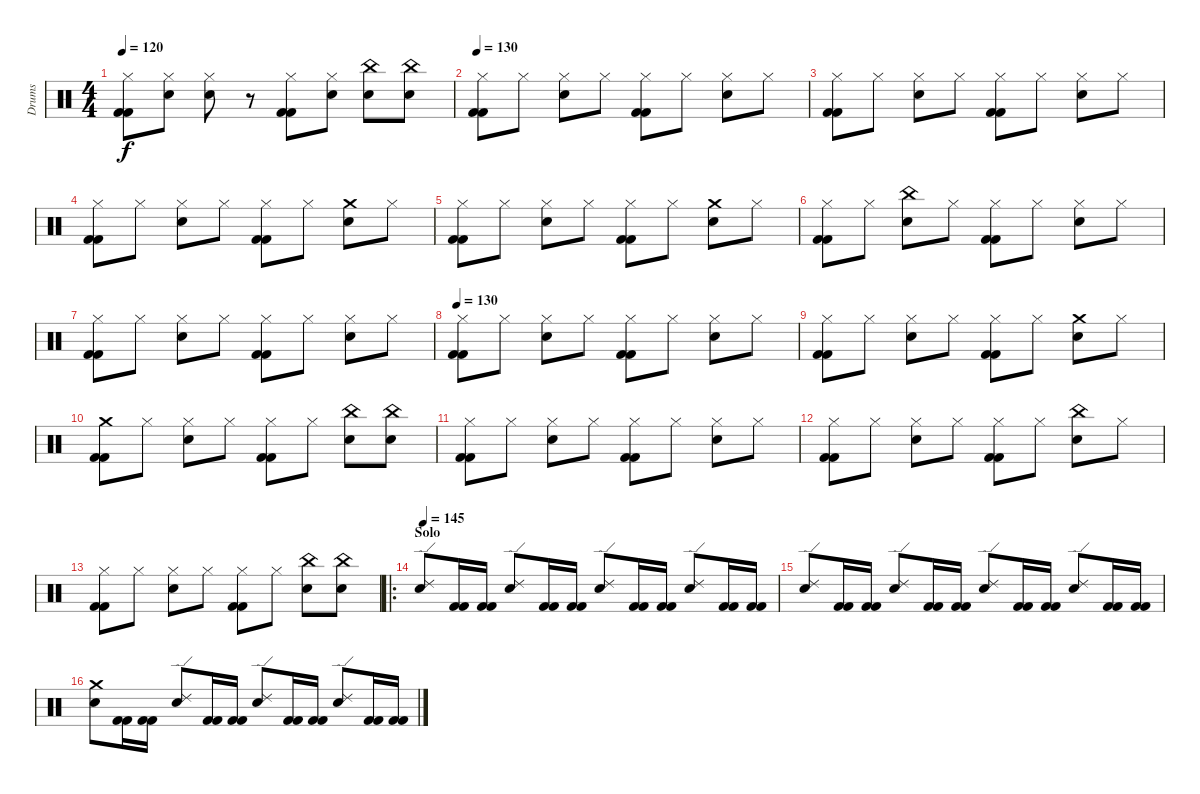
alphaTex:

\track ("Drums" "Drums") {instrument percussion}
\staff {score}
\articulation defaults
\ts (4 4)
\tempo 120
\clef neutral
\ks c
("Hi-Hat (closed)" "Kick (hit) 2" "Kick (hit) 2").8{dy f} ("Electric Snare (hit)" "Hi-Hat (closed)").8 ("Electric Snare (hit)" "Hi-Hat (closed)").8 r.8 ("Hi-Hat (closed)" "Kick (hit) 2" "Kick (hit) 2").8 ("Electric Snare (hit)" "Hi-Hat (closed)").8 ("Electric Snare (hit)" "China (hit)").8 ("China (hit)" "Electric Snare (hit)").8 |
\tempo 130
("Hi-Hat (closed)" "Kick (hit) 2" "Kick (hit) 2").8 "Hi-Hat (closed)".8 ("Electric Snare (hit)" "Hi-Hat (closed)").8 "Hi-Hat (closed)".8 ("Hi-Hat (closed)" "Kick (hit) 2" "Kick (hit) 2").8 "Hi-Hat (closed)".8 ("Electric Snare (hit)" "Hi-Hat (closed)").8 "Hi-Hat (closed)".8 |
("Hi-Hat (closed)" "Kick (hit) 2" "Kick (hit) 2").8 "Hi-Hat (closed)".8 ("Electric Snare (hit)" "Hi-Hat (closed)").8 "Hi-Hat (closed)".8 ("Hi-Hat (closed)" "Kick (hit) 2" "Kick (hit) 2").8 "Hi-Hat (closed)".8 ("Electric Snare (hit)" "Hi-Hat (closed)").8 "Hi-Hat (closed)".8 |
("Hi-Hat (closed)" "Kick (hit) 2" "Kick (hit) 2").8 "Hi-Hat (closed)".8 ("Electric Snare (hit)" "Hi-Hat (closed)").8 "Hi-Hat (closed)".8 ("Hi-Hat (closed)" "Kick (hit) 2" "Kick (hit) 2").8 "Hi-Hat (closed)".8 ("Electric Snare (hit)" "Crash medium (hit)").8 "Hi-Hat (closed)".8 |
("Hi-Hat (closed)" "Kick (hit) 2" "Kick (hit) 2").8 "Hi-Hat (closed)".8 ("Electric Snare (hit)" "Hi-Hat (closed)").8 "Hi-Hat (closed)".8 ("Hi-Hat (closed)" "Kick (hit) 2" "Kick (hit) 2").8 "Hi-Hat (closed)".8 ("Electric Snare (hit)" "Crash medium (hit)").8 "Hi-Hat (closed)".8 |
("Hi-Hat (closed)" "Kick (hit) 2" "Kick (hit) 2").8 "Hi-Hat (closed)".8 ("Electric Snare (hit)" "China (hit)").8 "Hi-Hat (closed)".8 ("Hi-Hat (closed)" "Kick (hit) 2" "Kick (hit) 2").8 "Hi-Hat (closed)".8 ("Electric Snare (hit)" "Hi-Hat (closed)").8 "Hi-Hat (closed)".8 |
("Hi-Hat (closed)" "Kick (hit) 2" "Kick (hit) 2").8 "Hi-Hat (closed)".8 ("Electric Snare (hit)" "Hi-Hat (closed)").8 "Hi-Hat (closed)".8 ("Hi-Hat (closed)" "Kick (hit) 2" "Kick (hit) 2").8 "Hi-Hat (closed)".8 ("Electric Snare (hit)" "Hi-Hat (closed)").8 "Hi-Hat (closed)".8 |
\tempo 130
("Hi-Hat (closed)" "Kick (hit) 2" "Kick (hit) 2").8 "Hi-Hat (closed)".8 ("Electric Snare (hit)" "Hi-Hat (closed)").8 "Hi-Hat (closed)".8 ("Hi-Hat (closed)" "Kick (hit) 2" "Kick (hit) 2").8 "Hi-Hat (closed)".8 ("Electric Snare (hit)" "Hi-Hat (closed)").8 "Hi-Hat (closed)".8 |
("Hi-Hat (closed)" "Kick (hit) 2" "Kick (hit) 2").8 "Hi-Hat (closed)".8 ("Electric Snare (hit)" "Hi-Hat (closed)").8 "Hi-Hat (closed)".8 ("Hi-Hat (closed)" "Kick (hit) 2" "Kick (hit) 2").8 "Hi-Hat (closed)".8 ("Electric Snare (hit)" "Crash medium (hit)").8 "Hi-Hat (closed)".8 |
("Crash medium (hit)" "Kick (hit) 2" "Kick (hit) 2").8 "Hi-Hat (closed)".8 ("Electric Snare (hit)" "Hi-Hat (closed)").8 "Hi-Hat (closed)".8 ("Hi-Hat (closed)" "Kick (hit) 2" "Kick (hit) 2").8 "Hi-Hat (closed)".8 ("Electric Snare (hit)" "China (hit)").8 ("China (hit)" "Electric Snare (hit)").8 |
("Hi-Hat (closed)" "Kick (hit) 2" "Kick (hit) 2").8 "Hi-Hat (closed)".8 ("Electric Snare (hit)" "Hi-Hat (closed)").8 "Hi-Hat (closed)".8 ("Hi-Hat (closed)" "Kick (hit) 2" "Kick (hit) 2").8 "Hi-Hat (closed)".8 ("Electric Snare (hit)" "Hi-Hat (closed)").8 "Hi-Hat (closed)".8 |
("Hi-Hat (closed)" "Kick (hit) 2" "Kick (hit) 2").8 "Hi-Hat (closed)".8 ("Electric Snare (hit)" "Hi-Hat (closed)").8 "Hi-Hat (closed)".8 ("Hi-Hat (closed)" "Kick (hit) 2" "Kick (hit) 2").8 "Hi-Hat (closed)".8 ("Electric Snare (hit)" "China (hit)").8 "Hi-Hat (closed)".8 |
("Hi-Hat (closed)" "Kick (hit) 2" "Kick (hit) 2").8 "Hi-Hat (closed)".8 ("Electric Snare (hit)" "Hi-Hat (closed)").8 "Hi-Hat (closed)".8 ("Hi-Hat (closed)" "Kick (hit) 2" "Kick (hit) 2").8 "Hi-Hat (closed)".8 ("Electric Snare (hit)" "China (hit)").8 ("China (hit)" "Electric Snare (hit)").8 |
\ro
\section ("" "Solo ")
\tempo 145
("Ride (edge) 2" "Electric Snare (hit)").8 ("Kick (hit) 2" "Kick (hit) 2").16 ("Kick (hit) 2" "Kick (hit) 2").16 ("Electric Snare (hit)" "Ride (edge) 2").8 ("Kick (hit) 2" "Kick (hit) 2").16 ("Kick (hit) 2" "Kick (hit) 2").16 ("Ride (edge) 2" "Electric Snare (hit)").8 ("Kick (hit) 2" "Kick (hit) 2").16 ("Kick (hit) 2" "Kick (hit) 2").16 ("Ride (edge) 2" "Electric Snare (hit)").8 ("Kick (hit) 2" "Kick (hit) 2").16 ("Kick (hit) 2" "Kick (hit) 2").16 |
("Ride (edge) 2" "Electric Snare (hit)").8 ("Kick (hit) 2" "Kick (hit) 2").16 ("Kick (hit) 2" "Kick (hit) 2").16 ("Electric Snare (hit)" "Ride (edge) 2").8 ("Kick (hit) 2" "Kick (hit) 2").16 ("Kick (hit) 2" "Kick (hit) 2").16 ("Ride (edge) 2" "Electric Snare (hit)").8 ("Kick (hit) 2" "Kick (hit) 2").16 ("Kick (hit) 2" "Kick (hit) 2").16 ("Ride (edge) 2" "Electric Snare (hit)").8 ("Kick (hit) 2" "Kick (hit) 2").16 ("Kick (hit) 2" "Kick (hit) 2").16 |
("Crash medium (hit)" "Electric Snare (hit)").8 ("Kick (hit) 2" "Kick (hit) 2").16 ("Kick (hit) 2" "Kick (hit) 2").16 ("Electric Snare (hit)" "Ride (edge) 2").8 ("Kick (hit) 2" "Kick (hit) 2").16 ("Kick (hit) 2" "Kick (hit) 2").16 ("Ride (edge) 2" "Electric Snare (hit)").8 ("Kick (hit) 2" "Kick (hit) 2").16 ("Kick (hit) 2" "Kick (hit) 2").16 ("Ride (edge) 2" "Electric Snare (hit)").8 ("Kick (hit) 2" "Kick (hit) 2").16 ("Kick (hit) 2" "Kick (hit) 2").16
